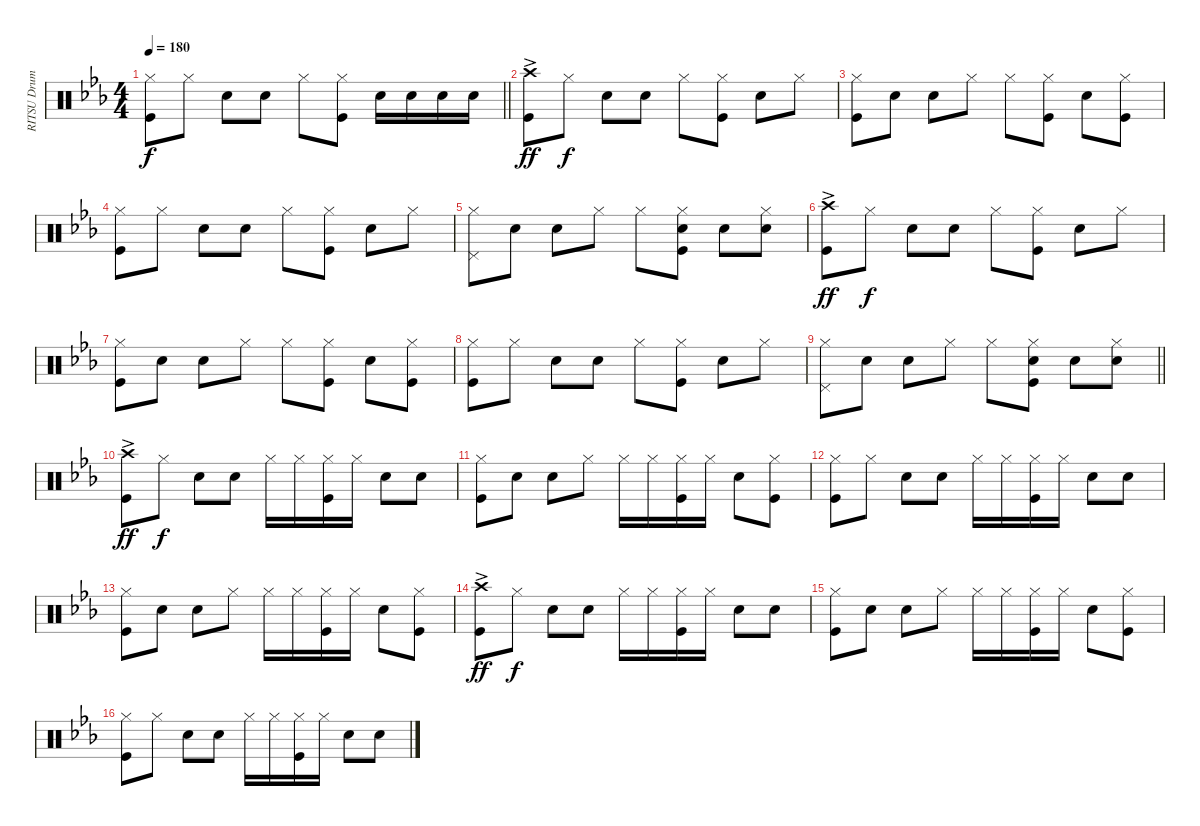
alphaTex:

\track ("RITSU Drums" "RITSU Drum") {instrument percussion}
\staff {score}
\articulation defaults
\ts (4 4)
\tempo 180
\clef neutral
\barLineRight lightlight
\ks cminor
("Hi-Hat (closed)" "Kick (hit)").8{dy f} "Hi-Hat (closed)".8 "Snare (hit) 2".8 "Snare (hit) 2".8 "Hi-Hat (closed)".8 ("Hi-Hat (closed)" "Kick (hit)").8 "Snare (hit) 2".16 "Snare (hit) 2".16 "Snare (hit) 2".16 "Snare (hit) 2".16 |
("Crash high (hit)"{ac} "Kick (hit)").8{dy ff} "Hi-Hat (closed)".8{dy f} "Snare (hit) 2".8 "Snare (hit) 2".8 "Hi-Hat (closed)".8 ("Hi-Hat (closed)" "Kick (hit)").8 "Snare (hit) 2".8 "Hi-Hat (closed)".8 |
("Hi-Hat (closed)" "Kick (hit)").8 "Snare (hit) 2".8 "Snare (hit) 2".8 "Hi-Hat (closed)".8 "Hi-Hat (closed)".8 ("Hi-Hat (closed)" "Kick (hit)").8 "Snare (hit) 2".8 ("Kick (hit)" "Hi-Hat (closed)").8 |
("Kick (hit)" "Hi-Hat (closed)").8 "Hi-Hat (closed)".8 "Snare (hit) 2".8 "Snare (hit) 2".8 "Hi-Hat (closed)".8 ("Hi-Hat (closed)" "Kick (hit)").8 "Snare (hit) 2".8 "Hi-Hat (closed)".8 |
("Hi-Hat (closed)" "Pedal Hi-Hat (hit)").8 "Snare (hit) 2".8 "Snare (hit) 2".8 "Hi-Hat (closed)".8 "Hi-Hat (closed)".8 ("Hi-Hat (closed)" "Snare (hit) 2" "Kick (hit)").8 "Snare (hit) 2".8 ("Snare (hit) 2" "Hi-Hat (closed)").8 |
("Crash high (hit)"{ac} "Kick (hit)").8{dy ff} "Hi-Hat (closed)".8{dy f} "Snare (hit) 2".8 "Snare (hit) 2".8 "Hi-Hat (closed)".8 ("Hi-Hat (closed)" "Kick (hit)").8 "Snare (hit) 2".8 "Hi-Hat (closed)".8 |
("Hi-Hat (closed)" "Kick (hit)").8 "Snare (hit) 2".8 "Snare (hit) 2".8 "Hi-Hat (closed)".8 "Hi-Hat (closed)".8 ("Hi-Hat (closed)" "Kick (hit)").8 "Snare (hit) 2".8 ("Kick (hit)" "Hi-Hat (closed)").8 |
("Kick (hit)" "Hi-Hat (closed)").8 "Hi-Hat (closed)".8 "Snare (hit) 2".8 "Snare (hit) 2".8 "Hi-Hat (closed)".8 ("Hi-Hat (closed)" "Kick (hit)").8 "Snare (hit) 2".8 "Hi-Hat (closed)".8 |
\barLineRight lightlight
("Hi-Hat (closed)" "Pedal Hi-Hat (hit)").8 "Snare (hit) 2".8 "Snare (hit) 2".8 "Hi-Hat (closed)".8 "Hi-Hat (closed)".8 ("Hi-Hat (closed)" "Snare (hit) 2" "Kick (hit)").8 "Snare (hit) 2".8 ("Snare (hit) 2" "Hi-Hat (closed)").8 |
("Crash high (hit)"{ac} "Kick (hit)").8{dy ff} "Hi-Hat (closed)".8{dy f} "Snare (hit) 2".8 "Snare (hit) 2".8 "Hi-Hat (closed)".16 "Hi-Hat (closed)".16 ("Hi-Hat (closed)" "Kick (hit)").16 "Hi-Hat (closed)".16 "Snare (hit) 2".8 "Snare (hit) 2".8 |
("Hi-Hat (closed)" "Kick (hit)").8 "Snare (hit) 2".8 "Snare (hit) 2".8 "Hi-Hat (closed)".8 "Hi-Hat (closed)".16 "Hi-Hat (closed)".16 ("Hi-Hat (closed)" "Kick (hit)").16 "Hi-Hat (closed)".16 "Snare (hit) 2".8 ("Kick (hit)" "Hi-Hat (closed)").8 |
("Kick (hit)" "Hi-Hat (closed)").8 "Hi-Hat (closed)".8 "Snare (hit) 2".8 "Snare (hit) 2".8 "Hi-Hat (closed)".16 "Hi-Hat (closed)".16 ("Hi-Hat (closed)" "Kick (hit)").16 "Hi-Hat (closed)".16 "Snare (hit) 2".8 "Snare (hit) 2".8 |
("Kick (hit)" "Hi-Hat (closed)").8 "Snare (hit) 2".8 "Snare (hit) 2".8 "Hi-Hat (closed)".8 "Hi-Hat (closed)".16 "Hi-Hat (closed)".16 ("Hi-Hat (closed)" "Kick (hit)").16 "Hi-Hat (closed)".16 "Snare (hit) 2".8 ("Hi-Hat (closed)" "Kick (hit)").8 |
("Crash high (hit)"{ac} "Kick (hit)").8{dy ff} "Hi-Hat (closed)".8{dy f} "Snare (hit) 2".8 "Snare (hit) 2".8 "Hi-Hat (closed)".16 "Hi-Hat (closed)".16 ("Hi-Hat (closed)" "Kick (hit)").16 "Hi-Hat (closed)".16 "Snare (hit) 2".8 "Snare (hit) 2".8 |
("Hi-Hat (closed)" "Kick (hit)").8 "Snare (hit) 2".8 "Snare (hit) 2".8 "Hi-Hat (closed)".8 "Hi-Hat (closed)".16 "Hi-Hat (closed)".16 ("Hi-Hat (closed)" "Kick (hit)").16 "Hi-Hat (closed)".16 "Snare (hit) 2".8 ("Kick (hit)" "Hi-Hat (closed)").8 |
("Kick (hit)" "Hi-Hat (closed)").8 "Hi-Hat (closed)".8 "Snare (hit) 2".8 "Snare (hit) 2".8 "Hi-Hat (closed)".16 "Hi-Hat (closed)".16 ("Hi-Hat (closed)" "Kick (hit)").16 "Hi-Hat (closed)".16 "Snare (hit) 2".8 "Snare (hit) 2".8
